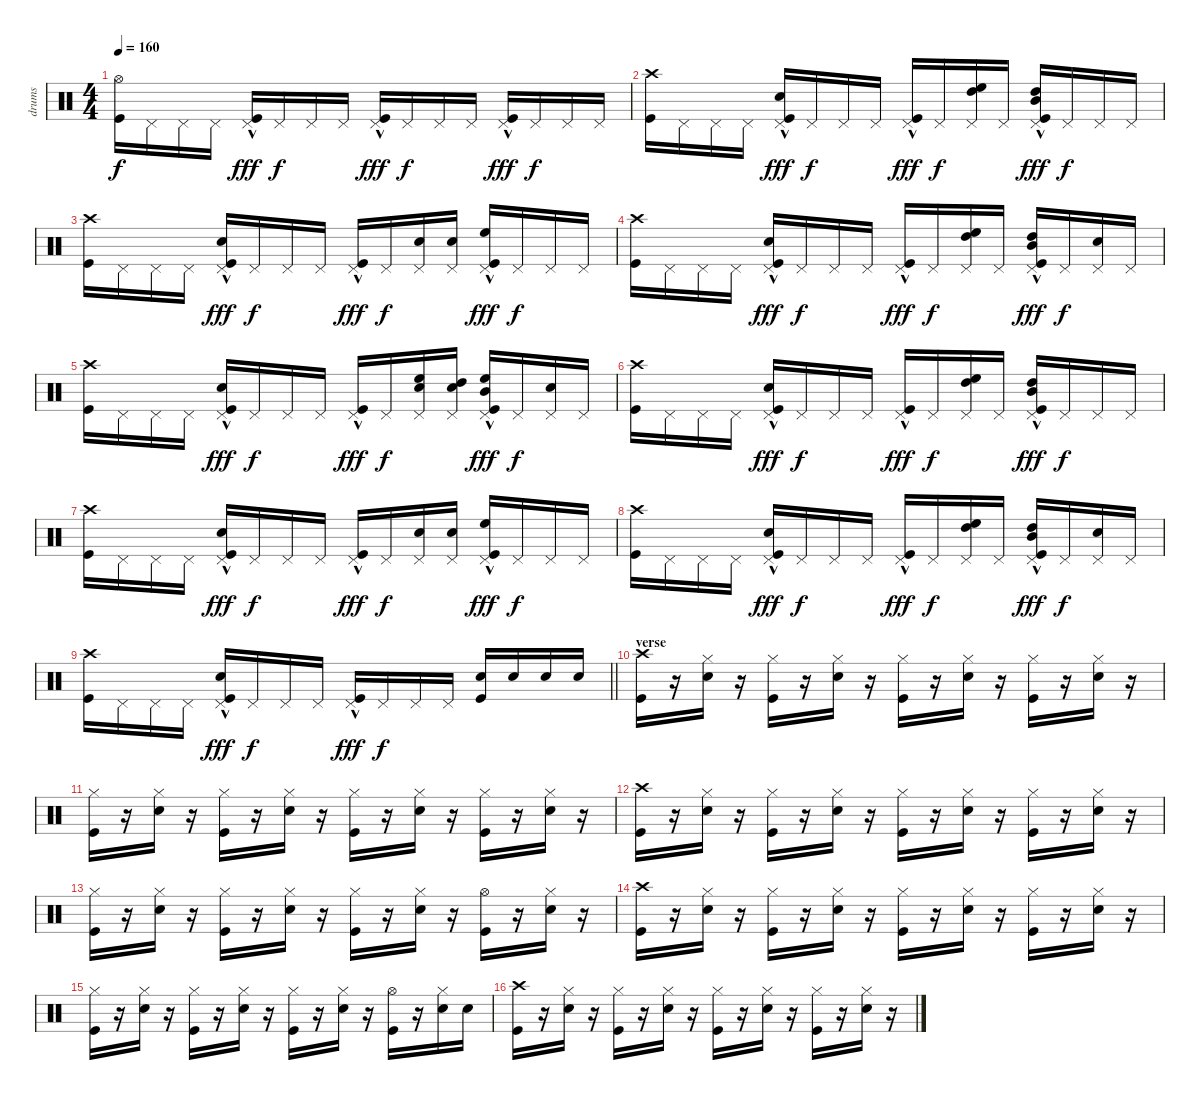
\track ("drums" "drums") {instrument percussion}
\staff {score}
\articulation defaults
\ts (4 4)
\tempo 160
\clef neutral
\ks c
("Hi-Hat (open)" "Kick (hit)").16{dy f} "Pedal Hi-Hat (hit)".16 "Pedal Hi-Hat (hit)".16 "Pedal Hi-Hat (hit)".16 ("Pedal Hi-Hat (hit)"{hac} "Kick (hit)").16{dy fff} "Pedal Hi-Hat (hit)".16{dy f} "Pedal Hi-Hat (hit)".16 "Pedal Hi-Hat (hit)".16 ("Pedal Hi-Hat (hit)"{hac} "Kick (hit)").16{dy fff} "Pedal Hi-Hat (hit)".16{dy f} "Pedal Hi-Hat (hit)".16 "Pedal Hi-Hat (hit)".16 ("Pedal Hi-Hat (hit)"{hac} "Kick (hit)").16{dy fff} "Pedal Hi-Hat (hit)".16{dy f} "Pedal Hi-Hat (hit)".16 "Pedal Hi-Hat (hit)".16 |
("Crash high (hit)" "Kick (hit)").16 "Pedal Hi-Hat (hit)".16 "Pedal Hi-Hat (hit)".16 "Pedal Hi-Hat (hit)".16 ("Pedal Hi-Hat (hit)"{hac} "Electric Snare (hit)" "Kick (hit)").16{dy fff} "Pedal Hi-Hat (hit)".16{dy f} "Pedal Hi-Hat (hit)".16 "Pedal Hi-Hat (hit)".16 ("Pedal Hi-Hat (hit)"{hac} "Kick (hit)").16{dy fff} "Pedal Hi-Hat (hit)".16{dy f} ("Pedal Hi-Hat (hit)" "High Floor Tom (hit)" "High Tom (hit)").16 "Pedal Hi-Hat (hit)".16 ("Pedal Hi-Hat (hit)"{hac} "High Tom (hit)" "Mid Tom (hit)" "Kick (hit)").16{dy fff} "Pedal Hi-Hat (hit)".16{dy f} "Pedal Hi-Hat (hit)".16 "Pedal Hi-Hat (hit)".16 |
("Crash high (hit)" "Kick (hit)").16 "Pedal Hi-Hat (hit)".16 "Pedal Hi-Hat (hit)".16 "Pedal Hi-Hat (hit)".16 ("Pedal Hi-Hat (hit)"{hac} "Electric Snare (hit)" "Kick (hit)").16{dy fff} "Pedal Hi-Hat (hit)".16{dy f} "Pedal Hi-Hat (hit)".16 "Pedal Hi-Hat (hit)".16 ("Pedal Hi-Hat (hit)"{hac} "Kick (hit)").16{dy fff} "Pedal Hi-Hat (hit)".16{dy f} ("Pedal Hi-Hat (hit)" "Electric Snare (hit)").16 ("Pedal Hi-Hat (hit)" "Electric Snare (hit)").16 ("Pedal Hi-Hat (hit)"{hac} "High Floor Tom (hit)" "Kick (hit)").16{dy fff} "Pedal Hi-Hat (hit)".16{dy f} "Pedal Hi-Hat (hit)".16 "Pedal Hi-Hat (hit)".16 |
("Crash high (hit)" "Kick (hit)").16 "Pedal Hi-Hat (hit)".16 "Pedal Hi-Hat (hit)".16 "Pedal Hi-Hat (hit)".16 ("Pedal Hi-Hat (hit)"{hac} "Electric Snare (hit)" "Kick (hit)").16{dy fff} "Pedal Hi-Hat (hit)".16{dy f} "Pedal Hi-Hat (hit)".16 "Pedal Hi-Hat (hit)".16 ("Pedal Hi-Hat (hit)"{hac} "Kick (hit)").16{dy fff} "Pedal Hi-Hat (hit)".16{dy f} ("Pedal Hi-Hat (hit)" "High Floor Tom (hit)" "High Tom (hit)").16 "Pedal Hi-Hat (hit)".16 ("Pedal Hi-Hat (hit)"{hac} "High Tom (hit)" "Mid Tom (hit)" "Kick (hit)").16{dy fff} "Pedal Hi-Hat (hit)".16{dy f} ("Pedal Hi-Hat (hit)" "Electric Snare (hit)").16 "Pedal Hi-Hat (hit)".16 |
("Crash high (hit)" "Kick (hit)").16 "Pedal Hi-Hat (hit)".16 "Pedal Hi-Hat (hit)".16 "Pedal Hi-Hat (hit)".16 ("Pedal Hi-Hat (hit)"{hac} "Electric Snare (hit)" "Kick (hit)").16{dy fff} "Pedal Hi-Hat (hit)".16{dy f} "Pedal Hi-Hat (hit)".16 "Pedal Hi-Hat (hit)".16 ("Pedal Hi-Hat (hit)"{hac} "Kick (hit)").16{dy fff} "Pedal Hi-Hat (hit)".16{dy f} ("Pedal Hi-Hat (hit)" "Electric Snare (hit)" "High Floor Tom (hit)").16 ("Pedal Hi-Hat (hit)" "Electric Snare (hit)" "High Tom (hit)").16 ("Pedal Hi-Hat (hit)"{hac} "High Floor Tom (hit)" "Mid Tom (hit)" "Kick (hit)").16{dy fff} "Pedal Hi-Hat (hit)".16{dy f} ("Pedal Hi-Hat (hit)" "Electric Snare (hit)").16 "Pedal Hi-Hat (hit)".16 |
("Crash high (hit)" "Kick (hit)").16 "Pedal Hi-Hat (hit)".16 "Pedal Hi-Hat (hit)".16 "Pedal Hi-Hat (hit)".16 ("Pedal Hi-Hat (hit)"{hac} "Electric Snare (hit)" "Kick (hit)").16{dy fff} "Pedal Hi-Hat (hit)".16{dy f} "Pedal Hi-Hat (hit)".16 "Pedal Hi-Hat (hit)".16 ("Pedal Hi-Hat (hit)"{hac} "Kick (hit)").16{dy fff} "Pedal Hi-Hat (hit)".16{dy f} ("Pedal Hi-Hat (hit)" "High Floor Tom (hit)" "High Tom (hit)").16 "Pedal Hi-Hat (hit)".16 ("Pedal Hi-Hat (hit)"{hac} "High Tom (hit)" "Mid Tom (hit)" "Kick (hit)").16{dy fff} "Pedal Hi-Hat (hit)".16{dy f} "Pedal Hi-Hat (hit)".16 "Pedal Hi-Hat (hit)".16 |
("Crash high (hit)" "Kick (hit)").16 "Pedal Hi-Hat (hit)".16 "Pedal Hi-Hat (hit)".16 "Pedal Hi-Hat (hit)".16 ("Pedal Hi-Hat (hit)"{hac} "Electric Snare (hit)" "Kick (hit)").16{dy fff} "Pedal Hi-Hat (hit)".16{dy f} "Pedal Hi-Hat (hit)".16 "Pedal Hi-Hat (hit)".16 ("Pedal Hi-Hat (hit)"{hac} "Kick (hit)").16{dy fff} "Pedal Hi-Hat (hit)".16{dy f} ("Pedal Hi-Hat (hit)" "Electric Snare (hit)").16 ("Pedal Hi-Hat (hit)" "Electric Snare (hit)").16 ("Pedal Hi-Hat (hit)"{hac} "High Floor Tom (hit)" "Kick (hit)").16{dy fff} "Pedal Hi-Hat (hit)".16{dy f} "Pedal Hi-Hat (hit)".16 "Pedal Hi-Hat (hit)".16 |
("Crash high (hit)" "Kick (hit)").16 "Pedal Hi-Hat (hit)".16 "Pedal Hi-Hat (hit)".16 "Pedal Hi-Hat (hit)".16 ("Pedal Hi-Hat (hit)"{hac} "Electric Snare (hit)" "Kick (hit)").16{dy fff} "Pedal Hi-Hat (hit)".16{dy f} "Pedal Hi-Hat (hit)".16 "Pedal Hi-Hat (hit)".16 ("Pedal Hi-Hat (hit)"{hac} "Kick (hit)").16{dy fff} "Pedal Hi-Hat (hit)".16{dy f} ("Pedal Hi-Hat (hit)" "High Floor Tom (hit)" "High Tom (hit)").16 "Pedal Hi-Hat (hit)".16 ("Pedal Hi-Hat (hit)"{hac} "High Tom (hit)" "Mid Tom (hit)" "Kick (hit)").16{dy fff} "Pedal Hi-Hat (hit)".16{dy f} ("Pedal Hi-Hat (hit)" "Electric Snare (hit)").16 "Pedal Hi-Hat (hit)".16 |
\barLineRight lightlight
("Crash high (hit)" "Kick (hit)").16 "Pedal Hi-Hat (hit)".16 "Pedal Hi-Hat (hit)".16 "Pedal Hi-Hat (hit)".16 ("Pedal Hi-Hat (hit)"{hac} "Electric Snare (hit)" "Kick (hit)").16{dy fff} "Pedal Hi-Hat (hit)".16{dy f} "Pedal Hi-Hat (hit)".16 "Pedal Hi-Hat (hit)".16 ("Pedal Hi-Hat (hit)"{hac} "Kick (hit)").16{dy fff} "Pedal Hi-Hat (hit)".16{dy f} "Pedal Hi-Hat (hit)".16 "Pedal Hi-Hat (hit)".16 ("Electric Snare (hit)" "Kick (hit)").16 "Electric Snare (hit)".16 "Electric Snare (hit)".16 "Electric Snare (hit)".16 |
\section ("" "verse")
("Crash high (hit)" "Kick (hit)").16 r.16 ("Hi-Hat (closed)" "Electric Snare (hit)").16 r.16 ("Hi-Hat (closed)" "Kick (hit)").16 r.16 ("Hi-Hat (closed)" "Electric Snare (hit)").16 r.16 ("Hi-Hat (closed)" "Kick (hit)").16 r.16 ("Hi-Hat (closed)" "Electric Snare (hit)").16 r.16 ("Hi-Hat (closed)" "Kick (hit)").16 r.16 ("Hi-Hat (closed)" "Electric Snare (hit)").16 r.16 |
("Hi-Hat (closed)" "Kick (hit)").16 r.16 ("Hi-Hat (closed)" "Electric Snare (hit)").16 r.16 ("Hi-Hat (closed)" "Kick (hit)").16 r.16 ("Hi-Hat (closed)" "Electric Snare (hit)").16 r.16 ("Hi-Hat (closed)" "Kick (hit)").16 r.16 ("Hi-Hat (closed)" "Electric Snare (hit)").16 r.16 ("Hi-Hat (closed)" "Kick (hit)").16 r.16 ("Hi-Hat (closed)" "Electric Snare (hit)").16 r.16 |
("Crash high (hit)" "Kick (hit)").16 r.16 ("Hi-Hat (closed)" "Electric Snare (hit)").16 r.16 ("Hi-Hat (closed)" "Kick (hit)").16 r.16 ("Hi-Hat (closed)" "Electric Snare (hit)").16 r.16 ("Hi-Hat (closed)" "Kick (hit)").16 r.16 ("Hi-Hat (closed)" "Electric Snare (hit)").16 r.16 ("Hi-Hat (closed)" "Kick (hit)").16 r.16 ("Hi-Hat (closed)" "Electric Snare (hit)").16 r.16 |
("Hi-Hat (closed)" "Kick (hit)").16 r.16 ("Hi-Hat (closed)" "Electric Snare (hit)").16 r.16 ("Hi-Hat (closed)" "Kick (hit)").16 r.16 ("Hi-Hat (closed)" "Electric Snare (hit)").16 r.16 ("Hi-Hat (closed)" "Kick (hit)").16 r.16 ("Hi-Hat (closed)" "Electric Snare (hit)").16 r.16 ("Hi-Hat (open)" "Kick (hit)").16 r.16 ("Hi-Hat (closed)" "Electric Snare (hit)").16 r.16 |
("Crash high (hit)" "Kick (hit)").16 r.16 ("Hi-Hat (closed)" "Electric Snare (hit)").16 r.16 ("Hi-Hat (closed)" "Kick (hit)").16 r.16 ("Hi-Hat (closed)" "Electric Snare (hit)").16 r.16 ("Hi-Hat (closed)" "Kick (hit)").16 r.16 ("Hi-Hat (closed)" "Electric Snare (hit)").16 r.16 ("Hi-Hat (closed)" "Kick (hit)").16 r.16 ("Hi-Hat (closed)" "Electric Snare (hit)").16 r.16 |
("Hi-Hat (closed)" "Kick (hit)").16 r.16 ("Hi-Hat (closed)" "Electric Snare (hit)").16 r.16 ("Hi-Hat (closed)" "Kick (hit)").16 r.16 ("Hi-Hat (closed)" "Electric Snare (hit)").16 r.16 ("Hi-Hat (closed)" "Kick (hit)").16 r.16 ("Hi-Hat (closed)" "Electric Snare (hit)").16 r.16 ("Hi-Hat (open)" "Kick (hit)").16 r.16 ("Hi-Hat (closed)" "Electric Snare (hit)").16 "Electric Snare (hit)".16 |
("Crash high (hit)" "Kick (hit)").16 r.16 ("Hi-Hat (closed)" "Electric Snare (hit)").16 r.16 ("Hi-Hat (closed)" "Kick (hit)").16 r.16 ("Hi-Hat (closed)" "Electric Snare (hit)").16 r.16 ("Hi-Hat (closed)" "Kick (hit)").16 r.16 ("Hi-Hat (closed)" "Electric Snare (hit)").16 r.16 ("Hi-Hat (closed)" "Kick (hit)").16 r.16 ("Hi-Hat (closed)" "Electric Snare (hit)").16 r.16
